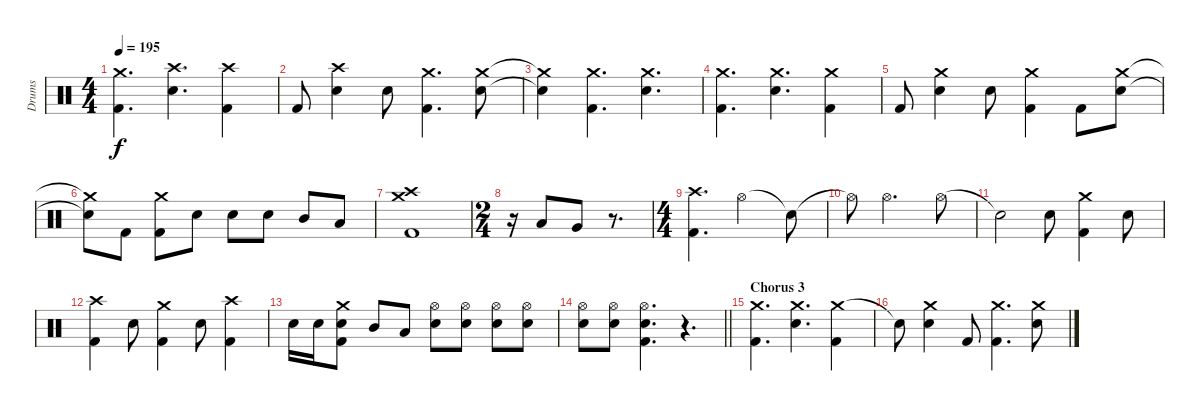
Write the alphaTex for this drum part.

\track ("Drums" "Drums") {instrument percussion}
\staff {score}
\articulation defaults
\ts (4 4)
\tempo 195
\clef neutral
\ks c
("Crash medium (hit)" "Kick (hit) 2").4{d dy f} ("Crash high (hit)" "Electric Snare (hit)").4{d} ("Crash high (hit)" "Kick (hit) 2").4 |
"Kick (hit) 2".8 ("Crash high (hit)" "Electric Snare (hit)").4 "Electric Snare (hit)".8 ("Crash medium (hit)" "Kick (hit) 2").4{d} ("Crash medium (hit)" "Electric Snare (hit)").8 |
("Crash medium (hit)"{t} "Electric Snare (hit)"{t}).4 ("Crash medium (hit)" "Kick (hit) 2").4{d} ("Crash medium (hit)" "Electric Snare (hit)").4{d} |
("Crash medium (hit)" "Kick (hit) 2").4{d} ("Crash medium (hit)" "Electric Snare (hit)").4{d} ("Crash medium (hit)" "Kick (hit) 2").4 |
"Kick (hit) 2".8 ("Crash medium (hit)" "Electric Snare (hit)").4 "Electric Snare (hit)".8 ("Crash medium (hit)" "Kick (hit) 2").4 "Kick (hit) 2".8 ("Crash medium (hit)" "Electric Snare (hit)").8 |
("Crash medium (hit)"{t} "Electric Snare (hit)"{t}).8 "Kick (hit) 2".8 ("Crash medium (hit)" "Kick (hit) 2").8 "Electric Snare (hit)".8 "Electric Snare (hit)".8 "Electric Snare (hit)".8 "Mid Tom (hit)".8 "Low Tom (hit)".8 |
("Crash high (hit)" "Crash medium (hit)" "Kick (hit) 2").1 |
\ts (2 4)
r.16 "Low Tom (hit)".8 "Very Low Tom (hit)".8 r.8{d} |
\ts (4 4)
("Crash high (hit)" "Kick (hit) 2").4{d} "Hi-Hat (open)".2 "Snare (hit)"{t}.8 |
"Hi-Hat (open)"{t}.8 "Hi-Hat (open)".2{d} "Hi-Hat (open)".8 |
"Snare (hit)"{t}.2 "Electric Snare (hit)".8 ("Crash medium (hit)" "Kick (hit) 2").4 "Electric Snare (hit)".8 |
("Crash high (hit)" "Kick (hit) 2").4 "Electric Snare (hit)".8 ("Crash medium (hit)" "Kick (hit) 2").4 "Electric Snare (hit)".8 ("Crash high (hit)" "Kick (hit) 2").4 |
"Electric Snare (hit)".16 "Electric Snare (hit)".16 ("Crash medium (hit)" "Electric Snare (hit)" "Kick (hit) 2").8 "Mid Tom (hit)".8 "Low Tom (hit)".8 ("Hi-Hat (open)" "Electric Snare (hit)").8 ("Hi-Hat (open)" "Electric Snare (hit)").8 ("Hi-Hat (open)" "Electric Snare (hit)").8 ("Hi-Hat (open)" "Electric Snare (hit)").8 |
\barLineRight lightlight
("Hi-Hat (open)" "Electric Snare (hit)").8 ("Hi-Hat (open)" "Electric Snare (hit)").8 ("Hi-Hat (open)" "Electric Snare (hit)" "Kick (hit) 2").4{d} r.4{d} |
\section ("" "Chorus 3")
("Crash medium (hit)" "Kick (hit) 2").4{d} ("Crash medium (hit)" "Electric Snare (hit)").4{d} ("Crash medium (hit)" "Kick (hit) 2").4 |
"Snare (hit)"{t}.8 ("Crash medium (hit)" "Electric Snare (hit)").4 "Kick (hit) 2".8 ("Crash medium (hit)" "Kick (hit) 2").4{d} ("Crash medium (hit)" "Electric Snare (hit)").8
